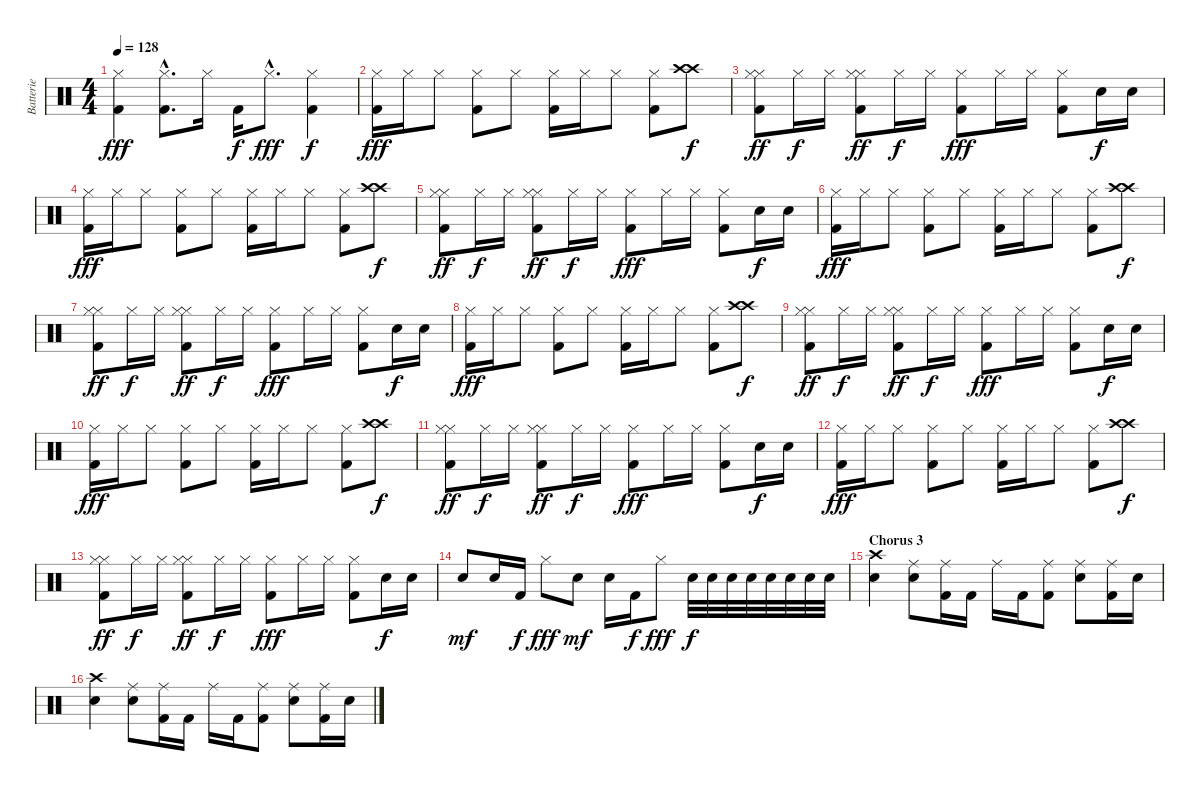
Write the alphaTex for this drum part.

\track ("Batterie" "Batterie") {instrument percussion}
\staff {score}
\articulation defaults
\ts (4 4)
\tempo 128
\clef neutral
\ks c
("Hi-Hat (closed)" "Kick (hit) 2").4{dy fff} ("Hi-Hat (closed)"{hac} "Kick (hit) 2"{hac}).8{d} "Hi-Hat (closed)".16 "Kick (hit) 2".16{dy f} "Hi-Hat (closed)"{hac}.8{d dy fff} ("Hi-Hat (closed)" "Kick (hit) 2").4{dy f} |
("Hi-Hat (closed)" "Kick (hit) 2").16{dy fff} "Hi-Hat (closed)".16 "Hi-Hat (closed)".8 ("Hi-Hat (closed)" "Kick (hit) 2").8 "Hi-Hat (closed)".8 ("Hi-Hat (closed)" "Kick (hit) 2").16 "Hi-Hat (closed)".16 "Hi-Hat (closed)".8 ("Hi-Hat (closed)" "Kick (hit) 2").8 ("Crash high (hit)" "Crash high (hit)").8{dy f} |
("Hi-Hat (closed)" "Hi-Hat (closed)" "Kick (hit) 2").8{dy ff} "Hi-Hat (closed)".16{dy f} "Hi-Hat (closed)".16 ("Hi-Hat (closed)" "Hi-Hat (closed)" "Kick (hit) 2").8{dy ff} "Hi-Hat (closed)".16{dy f} "Hi-Hat (closed)".16 ("Hi-Hat (closed)" "Kick (hit) 2").8{dy fff} "Hi-Hat (closed)".16 "Hi-Hat (closed)".16 ("Hi-Hat (closed)" "Kick (hit) 2").8 "Electric Snare (hit)".16{dy f} "Electric Snare (hit)".16 |
("Hi-Hat (closed)" "Kick (hit) 2").16{dy fff} "Hi-Hat (closed)".16 "Hi-Hat (closed)".8 ("Hi-Hat (closed)" "Kick (hit) 2").8 "Hi-Hat (closed)".8 ("Hi-Hat (closed)" "Kick (hit) 2").16 "Hi-Hat (closed)".16 "Hi-Hat (closed)".8 ("Hi-Hat (closed)" "Kick (hit) 2").8 ("Crash high (hit)" "Crash high (hit)").8{dy f} |
("Hi-Hat (closed)" "Hi-Hat (closed)" "Kick (hit) 2").8{dy ff} "Hi-Hat (closed)".16{dy f} "Hi-Hat (closed)".16 ("Hi-Hat (closed)" "Hi-Hat (closed)" "Kick (hit) 2").8{dy ff} "Hi-Hat (closed)".16{dy f} "Hi-Hat (closed)".16 ("Hi-Hat (closed)" "Kick (hit) 2").8{dy fff} "Hi-Hat (closed)".16 "Hi-Hat (closed)".16 ("Hi-Hat (closed)" "Kick (hit) 2").8 "Electric Snare (hit)".16{dy f} "Electric Snare (hit)".16 |
("Hi-Hat (closed)" "Kick (hit) 2").16{dy fff} "Hi-Hat (closed)".16 "Hi-Hat (closed)".8 ("Hi-Hat (closed)" "Kick (hit) 2").8 "Hi-Hat (closed)".8 ("Hi-Hat (closed)" "Kick (hit) 2").16 "Hi-Hat (closed)".16 "Hi-Hat (closed)".8 ("Hi-Hat (closed)" "Kick (hit) 2").8 ("Crash high (hit)" "Crash high (hit)").8{dy f} |
("Hi-Hat (closed)" "Hi-Hat (closed)" "Kick (hit) 2").8{dy ff} "Hi-Hat (closed)".16{dy f} "Hi-Hat (closed)".16 ("Hi-Hat (closed)" "Hi-Hat (closed)" "Kick (hit) 2").8{dy ff} "Hi-Hat (closed)".16{dy f} "Hi-Hat (closed)".16 ("Hi-Hat (closed)" "Kick (hit) 2").8{dy fff} "Hi-Hat (closed)".16 "Hi-Hat (closed)".16 ("Hi-Hat (closed)" "Kick (hit) 2").8 "Electric Snare (hit)".16{dy f} "Electric Snare (hit)".16 |
("Hi-Hat (closed)" "Kick (hit) 2").16{dy fff} "Hi-Hat (closed)".16 "Hi-Hat (closed)".8 ("Hi-Hat (closed)" "Kick (hit) 2").8 "Hi-Hat (closed)".8 ("Hi-Hat (closed)" "Kick (hit) 2").16 "Hi-Hat (closed)".16 "Hi-Hat (closed)".8 ("Hi-Hat (closed)" "Kick (hit) 2").8 ("Crash high (hit)" "Crash high (hit)").8{dy f} |
("Hi-Hat (closed)" "Hi-Hat (closed)" "Kick (hit) 2").8{dy ff} "Hi-Hat (closed)".16{dy f} "Hi-Hat (closed)".16 ("Hi-Hat (closed)" "Hi-Hat (closed)" "Kick (hit) 2").8{dy ff} "Hi-Hat (closed)".16{dy f} "Hi-Hat (closed)".16 ("Hi-Hat (closed)" "Kick (hit) 2").8{dy fff} "Hi-Hat (closed)".16 "Hi-Hat (closed)".16 ("Hi-Hat (closed)" "Kick (hit) 2").8 "Electric Snare (hit)".16{dy f} "Electric Snare (hit)".16 |
("Hi-Hat (closed)" "Kick (hit) 2").16{dy fff} "Hi-Hat (closed)".16 "Hi-Hat (closed)".8 ("Hi-Hat (closed)" "Kick (hit) 2").8 "Hi-Hat (closed)".8 ("Hi-Hat (closed)" "Kick (hit) 2").16 "Hi-Hat (closed)".16 "Hi-Hat (closed)".8 ("Hi-Hat (closed)" "Kick (hit) 2").8 ("Crash high (hit)" "Crash high (hit)").8{dy f} |
("Hi-Hat (closed)" "Hi-Hat (closed)" "Kick (hit) 2").8{dy ff} "Hi-Hat (closed)".16{dy f} "Hi-Hat (closed)".16 ("Hi-Hat (closed)" "Hi-Hat (closed)" "Kick (hit) 2").8{dy ff} "Hi-Hat (closed)".16{dy f} "Hi-Hat (closed)".16 ("Hi-Hat (closed)" "Kick (hit) 2").8{dy fff} "Hi-Hat (closed)".16 "Hi-Hat (closed)".16 ("Hi-Hat (closed)" "Kick (hit) 2").8 "Electric Snare (hit)".16{dy f} "Electric Snare (hit)".16 |
("Hi-Hat (closed)" "Kick (hit) 2").16{dy fff} "Hi-Hat (closed)".16 "Hi-Hat (closed)".8 ("Hi-Hat (closed)" "Kick (hit) 2").8 "Hi-Hat (closed)".8 ("Hi-Hat (closed)" "Kick (hit) 2").16 "Hi-Hat (closed)".16 "Hi-Hat (closed)".8 ("Hi-Hat (closed)" "Kick (hit) 2").8 ("Crash high (hit)" "Crash high (hit)").8{dy f} |
("Hi-Hat (closed)" "Hi-Hat (closed)" "Kick (hit) 2").8{dy ff} "Hi-Hat (closed)".16{dy f} "Hi-Hat (closed)".16 ("Hi-Hat (closed)" "Hi-Hat (closed)" "Kick (hit) 2").8{dy ff} "Hi-Hat (closed)".16{dy f} "Hi-Hat (closed)".16 ("Hi-Hat (closed)" "Kick (hit) 2").8{dy fff} "Hi-Hat (closed)".16 "Hi-Hat (closed)".16 ("Hi-Hat (closed)" "Kick (hit) 2").8 "Electric Snare (hit)".16{dy f} "Electric Snare (hit)".16 |
"Electric Snare (hit)".8{dy mf} "Electric Snare (hit)".16 "Kick (hit) 2".16{dy f} "Hi-Hat (closed)".8{dy fff} "Electric Snare (hit)".8{dy mf} "Electric Snare (hit)".16 "Kick (hit) 2".16{dy f} "Hi-Hat (closed)".8{dy fff} "Electric Snare (hit)".32{dy f} "Electric Snare (hit)".32 "Electric Snare (hit)".32 "Electric Snare (hit)".32 "Electric Snare (hit)".32 "Electric Snare (hit)".32 "Electric Snare (hit)".32 "Electric Snare (hit)".32 |
\section ("" "Chorus 3")
("Crash high (hit)" "Electric Snare (hit)").4 ("Ride (middle)" "Electric Snare (hit)").8 ("Ride (middle)" "Kick (hit) 2").16 "Kick (hit) 2".16 "Ride (middle)".16 "Kick (hit) 2".16 ("Ride (middle)" "Kick (hit) 2").8 ("Ride (middle)" "Electric Snare (hit)").8 ("Ride (middle)" "Kick (hit) 2").16 "Electric Snare (hit)".16 |
("Crash high (hit)" "Electric Snare (hit)").4 ("Ride (middle)" "Electric Snare (hit)").8 ("Ride (middle)" "Kick (hit) 2").16 "Kick (hit) 2".16 "Ride (middle)".16 "Kick (hit) 2".16 ("Ride (middle)" "Kick (hit) 2").8 ("Ride (middle)" "Electric Snare (hit)").8 ("Ride (middle)" "Kick (hit) 2").16 "Electric Snare (hit)".16
